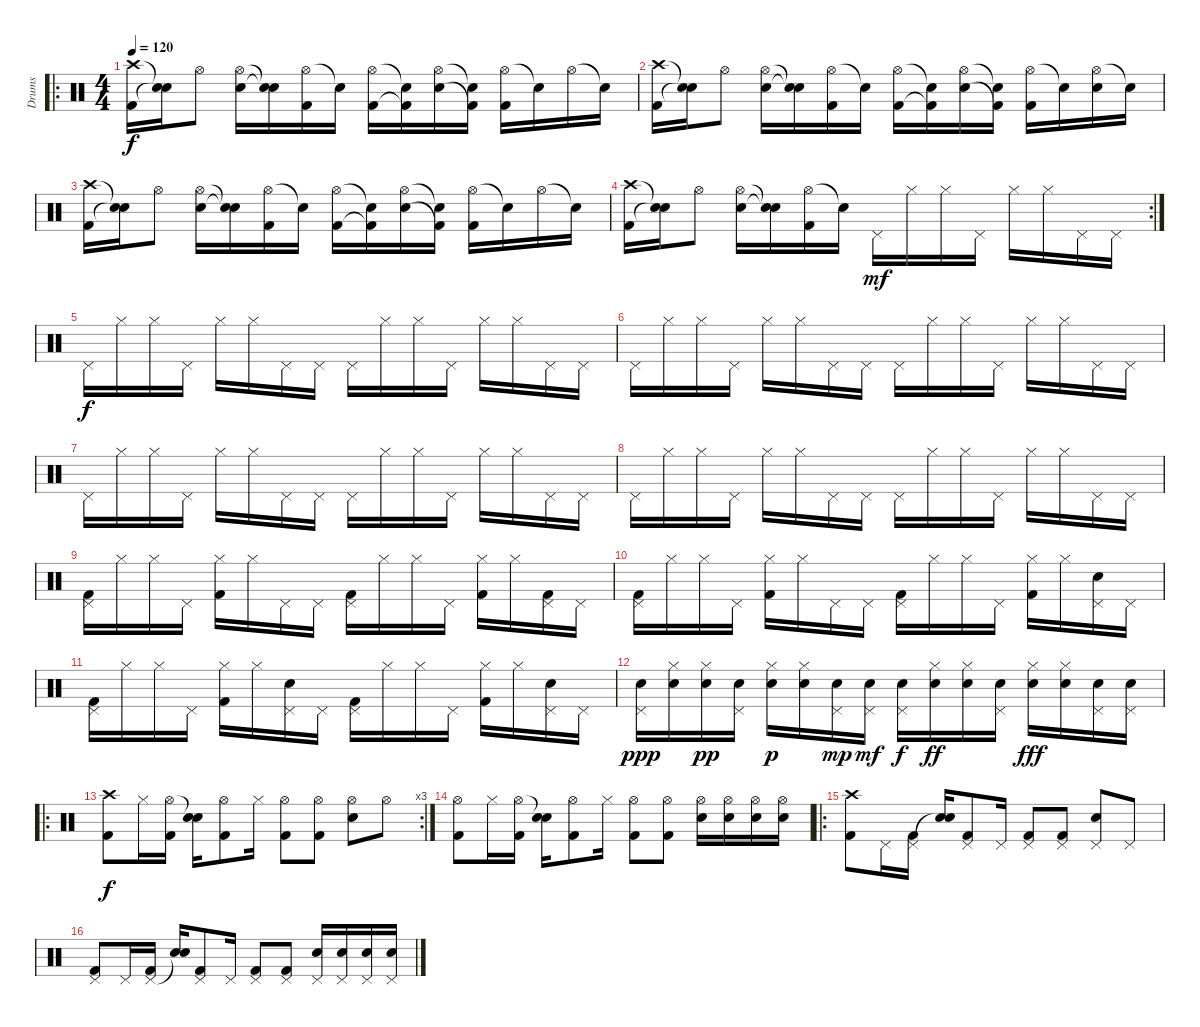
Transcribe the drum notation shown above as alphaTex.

\track ("Drums" "Drums") {instrument percussion}
\staff {score}
\articulation defaults
\ro
\ts (4 4)
\tempo 120
\clef neutral
\ks c
("Crash high (hit)" "Kick (hit) 2").16{dy f} ("Snare (hit)"{t} "Snare (hit)"{t}).16 "Hi-Hat (open)".8 ("Hi-Hat (open)" "Electric Snare (hit)").16 ("Snare (hit)"{t} "Snare (hit)"{t}).16 ("Hi-Hat (open)" "Kick (hit) 2").16 "Snare (hit)"{t}.16 ("Hi-Hat (open)" "Kick (hit) 2").16 ("Snare (hit)"{t} "Kick (hit) 2"{t}).16 ("Hi-Hat (open)" "Electric Snare (hit)").16 ("Snare (hit)"{t} "Kick (hit) 2"{t}).16 ("Hi-Hat (open)" "Kick (hit) 2").16 "Snare (hit)"{t}.16 "Hi-Hat (open)".16 "Snare (hit)"{t}.16 |
("Crash high (hit)" "Kick (hit) 2").16 ("Snare (hit)"{t} "Snare (hit)"{t}).16 "Hi-Hat (open)".8 ("Hi-Hat (open)" "Electric Snare (hit)").16 ("Snare (hit)"{t} "Snare (hit)"{t}).16 ("Hi-Hat (open)" "Kick (hit) 2").16 "Snare (hit)"{t}.16 ("Hi-Hat (open)" "Kick (hit) 2").16 ("Snare (hit)"{t} "Kick (hit) 2"{t}).16 ("Hi-Hat (open)" "Electric Snare (hit)").16 ("Snare (hit)"{t} "Kick (hit) 2"{t}).16 ("Hi-Hat (open)" "Kick (hit) 2").16 "Snare (hit)"{t}.16 ("Hi-Hat (open)" "Electric Snare (hit)").16 "Snare (hit)"{t}.16 |
("Crash high (hit)" "Kick (hit) 2").16 ("Snare (hit)"{t} "Snare (hit)"{t}).16 "Hi-Hat (open)".8 ("Hi-Hat (open)" "Electric Snare (hit)").16 ("Snare (hit)"{t} "Snare (hit)"{t}).16 ("Hi-Hat (open)" "Kick (hit) 2").16 "Snare (hit)"{t}.16 ("Hi-Hat (open)" "Kick (hit) 2").16 ("Snare (hit)"{t} "Kick (hit) 2"{t}).16 ("Hi-Hat (open)" "Electric Snare (hit)").16 ("Snare (hit)"{t} "Kick (hit) 2"{t}).16 ("Hi-Hat (open)" "Kick (hit) 2").16 "Snare (hit)"{t}.16 "Hi-Hat (open)".16 "Snare (hit)"{t}.16 |
\rc 2
("Crash high (hit)" "Kick (hit) 2").16 ("Snare (hit)"{t} "Snare (hit)"{t}).16 "Hi-Hat (open)".8 ("Hi-Hat (open)" "Electric Snare (hit)").16 ("Snare (hit)"{t} "Snare (hit)"{t}).16 ("Hi-Hat (open)" "Kick (hit) 2").16 "Snare (hit)"{t}.16 "Pedal Hi-Hat (hit)".16{dy mf} "Hi-Hat (closed)".16 "Hi-Hat (closed)".16 "Pedal Hi-Hat (hit)".16 "Hi-Hat (closed)".16 "Hi-Hat (closed)".16 "Pedal Hi-Hat (hit)".16 "Pedal Hi-Hat (hit)".16 |
"Pedal Hi-Hat (hit)".16{dy f} "Hi-Hat (closed)".16 "Hi-Hat (closed)".16 "Pedal Hi-Hat (hit)".16 "Hi-Hat (closed)".16 "Hi-Hat (closed)".16 "Pedal Hi-Hat (hit)".16 "Pedal Hi-Hat (hit)".16 "Pedal Hi-Hat (hit)".16 "Hi-Hat (closed)".16 "Hi-Hat (closed)".16 "Pedal Hi-Hat (hit)".16 "Hi-Hat (closed)".16 "Hi-Hat (closed)".16 "Pedal Hi-Hat (hit)".16 "Pedal Hi-Hat (hit)".16 |
"Pedal Hi-Hat (hit)".16 "Hi-Hat (closed)".16 "Hi-Hat (closed)".16 "Pedal Hi-Hat (hit)".16 "Hi-Hat (closed)".16 "Hi-Hat (closed)".16 "Pedal Hi-Hat (hit)".16 "Pedal Hi-Hat (hit)".16 "Pedal Hi-Hat (hit)".16 "Hi-Hat (closed)".16 "Hi-Hat (closed)".16 "Pedal Hi-Hat (hit)".16 "Hi-Hat (closed)".16 "Hi-Hat (closed)".16 "Pedal Hi-Hat (hit)".16 "Pedal Hi-Hat (hit)".16 |
"Pedal Hi-Hat (hit)".16 "Hi-Hat (closed)".16 "Hi-Hat (closed)".16 "Pedal Hi-Hat (hit)".16 "Hi-Hat (closed)".16 "Hi-Hat (closed)".16 "Pedal Hi-Hat (hit)".16 "Pedal Hi-Hat (hit)".16 "Pedal Hi-Hat (hit)".16 "Hi-Hat (closed)".16 "Hi-Hat (closed)".16 "Pedal Hi-Hat (hit)".16 "Hi-Hat (closed)".16 "Hi-Hat (closed)".16 "Pedal Hi-Hat (hit)".16 "Pedal Hi-Hat (hit)".16 |
"Pedal Hi-Hat (hit)".16 "Hi-Hat (closed)".16 "Hi-Hat (closed)".16 "Pedal Hi-Hat (hit)".16 "Hi-Hat (closed)".16 "Hi-Hat (closed)".16 "Pedal Hi-Hat (hit)".16 "Pedal Hi-Hat (hit)".16 "Pedal Hi-Hat (hit)".16 "Hi-Hat (closed)".16 "Hi-Hat (closed)".16 "Pedal Hi-Hat (hit)".16 "Hi-Hat (closed)".16 "Hi-Hat (closed)".16 "Pedal Hi-Hat (hit)".16 "Pedal Hi-Hat (hit)".16 |
("Pedal Hi-Hat (hit)" "Kick (hit) 2").16 "Hi-Hat (closed)".16 "Hi-Hat (closed)".16 "Pedal Hi-Hat (hit)".16 ("Hi-Hat (closed)" "Kick (hit) 2").16 "Hi-Hat (closed)".16 "Pedal Hi-Hat (hit)".16 "Pedal Hi-Hat (hit)".16 ("Pedal Hi-Hat (hit)" "Kick (hit) 2").16 "Hi-Hat (closed)".16 "Hi-Hat (closed)".16 "Pedal Hi-Hat (hit)".16 ("Hi-Hat (closed)" "Kick (hit) 2").16 "Hi-Hat (closed)".16 ("Pedal Hi-Hat (hit)" "Kick (hit) 2").16 "Pedal Hi-Hat (hit)".16 |
("Pedal Hi-Hat (hit)" "Kick (hit) 2").16 "Hi-Hat (closed)".16 "Hi-Hat (closed)".16 "Pedal Hi-Hat (hit)".16 ("Hi-Hat (closed)" "Kick (hit) 2").16 "Hi-Hat (closed)".16 "Pedal Hi-Hat (hit)".16 "Pedal Hi-Hat (hit)".16 ("Pedal Hi-Hat (hit)" "Kick (hit) 2").16 "Hi-Hat (closed)".16 "Hi-Hat (closed)".16 "Pedal Hi-Hat (hit)".16 ("Hi-Hat (closed)" "Kick (hit) 2").16 "Hi-Hat (closed)".16 ("Pedal Hi-Hat (hit)" "Electric Snare (hit)").16 "Pedal Hi-Hat (hit)".16 |
("Pedal Hi-Hat (hit)" "Kick (hit) 2").16 "Hi-Hat (closed)".16 "Hi-Hat (closed)".16 "Pedal Hi-Hat (hit)".16 ("Hi-Hat (closed)" "Kick (hit) 2").16 "Hi-Hat (closed)".16 ("Pedal Hi-Hat (hit)" "Electric Snare (hit)").16 "Pedal Hi-Hat (hit)".16 ("Pedal Hi-Hat (hit)" "Kick (hit) 2").16 "Hi-Hat (closed)".16 "Hi-Hat (closed)".16 "Pedal Hi-Hat (hit)".16 ("Hi-Hat (closed)" "Kick (hit) 2").16 "Hi-Hat (closed)".16 ("Pedal Hi-Hat (hit)" "Electric Snare (hit)").16 "Pedal Hi-Hat (hit)".16 |
("Pedal Hi-Hat (hit)" "Electric Snare (hit)").16{dy ppp} ("Hi-Hat (closed)" "Electric Snare (hit)").16 ("Hi-Hat (closed)" "Electric Snare (hit)").16{dy pp} ("Pedal Hi-Hat (hit)" "Electric Snare (hit)").16 ("Hi-Hat (closed)" "Electric Snare (hit)").16{dy p} ("Hi-Hat (closed)" "Electric Snare (hit)").16 ("Pedal Hi-Hat (hit)" "Electric Snare (hit)").16{dy mp} ("Pedal Hi-Hat (hit)" "Electric Snare (hit)").16{dy mf} ("Pedal Hi-Hat (hit)" "Electric Snare (hit)").16{dy f} ("Hi-Hat (closed)" "Electric Snare (hit)").16{dy ff} ("Hi-Hat (closed)" "Electric Snare (hit)").16 ("Pedal Hi-Hat (hit)" "Electric Snare (hit)").16 ("Hi-Hat (closed)" "Electric Snare (hit)").16{dy fff} ("Hi-Hat (closed)" "Electric Snare (hit)").16 ("Pedal Hi-Hat (hit)" "Electric Snare (hit)").16 ("Pedal Hi-Hat (hit)" "Electric Snare (hit)").16 |
\ro
\rc 3
("Crash high (hit)" "Kick (hit) 2").8{dy f} "Hi-Hat (closed)".16 ("Hi-Hat (open)" "Kick (hit) 2").16 ("Snare (hit)"{t} "Snare (hit) 2").16 ("Hi-Hat (open)" "Kick (hit) 2").8 "Hi-Hat (closed)".16 ("Hi-Hat (open)" "Kick (hit) 2").8 ("Hi-Hat (open)" "Kick (hit) 2").8 ("Hi-Hat (open)" "Snare (hit) 2").8 "Hi-Hat (open)".8 |
("Hi-Hat (open)" "Kick (hit) 2").8 "Hi-Hat (closed)".16 ("Hi-Hat (open)" "Kick (hit) 2").16 ("Snare (hit)"{t} "Snare (hit) 2").16 ("Hi-Hat (open)" "Kick (hit) 2").8 "Hi-Hat (closed)".16 ("Hi-Hat (open)" "Kick (hit) 2").8 ("Hi-Hat (open)" "Kick (hit) 2").8 ("Hi-Hat (open)" "Snare (hit) 2").16 ("Hi-Hat (open)" "Snare (hit) 2").16 ("Hi-Hat (open)" "Snare (hit) 2").16 ("Hi-Hat (open)" "Snare (hit) 2").16 |
\ro
("Crash high (hit)" "Kick (hit) 2").8 "Pedal Hi-Hat (hit)".16 ("Pedal Hi-Hat (hit)" "Kick (hit) 2").16 ("Snare (hit)"{t} "Snare (hit) 2").16 ("Pedal Hi-Hat (hit)" "Kick (hit) 2").8 "Pedal Hi-Hat (hit)".16 ("Pedal Hi-Hat (hit)" "Kick (hit) 2").8 ("Pedal Hi-Hat (hit)" "Kick (hit) 2").8 ("Pedal Hi-Hat (hit)" "Snare (hit) 2").8 "Pedal Hi-Hat (hit)".8 |
("Pedal Hi-Hat (hit)" "Kick (hit) 2").8 "Pedal Hi-Hat (hit)".16 ("Pedal Hi-Hat (hit)" "Kick (hit) 2").16 ("Snare (hit)"{t} "Snare (hit) 2").16 ("Pedal Hi-Hat (hit)" "Kick (hit) 2").8 "Pedal Hi-Hat (hit)".16 ("Pedal Hi-Hat (hit)" "Kick (hit) 2").8 ("Pedal Hi-Hat (hit)" "Kick (hit) 2").8 ("Pedal Hi-Hat (hit)" "Snare (hit) 2").16 ("Pedal Hi-Hat (hit)" "Snare (hit) 2").16 ("Pedal Hi-Hat (hit)" "Snare (hit) 2").16 ("Pedal Hi-Hat (hit)" "Snare (hit) 2").16
